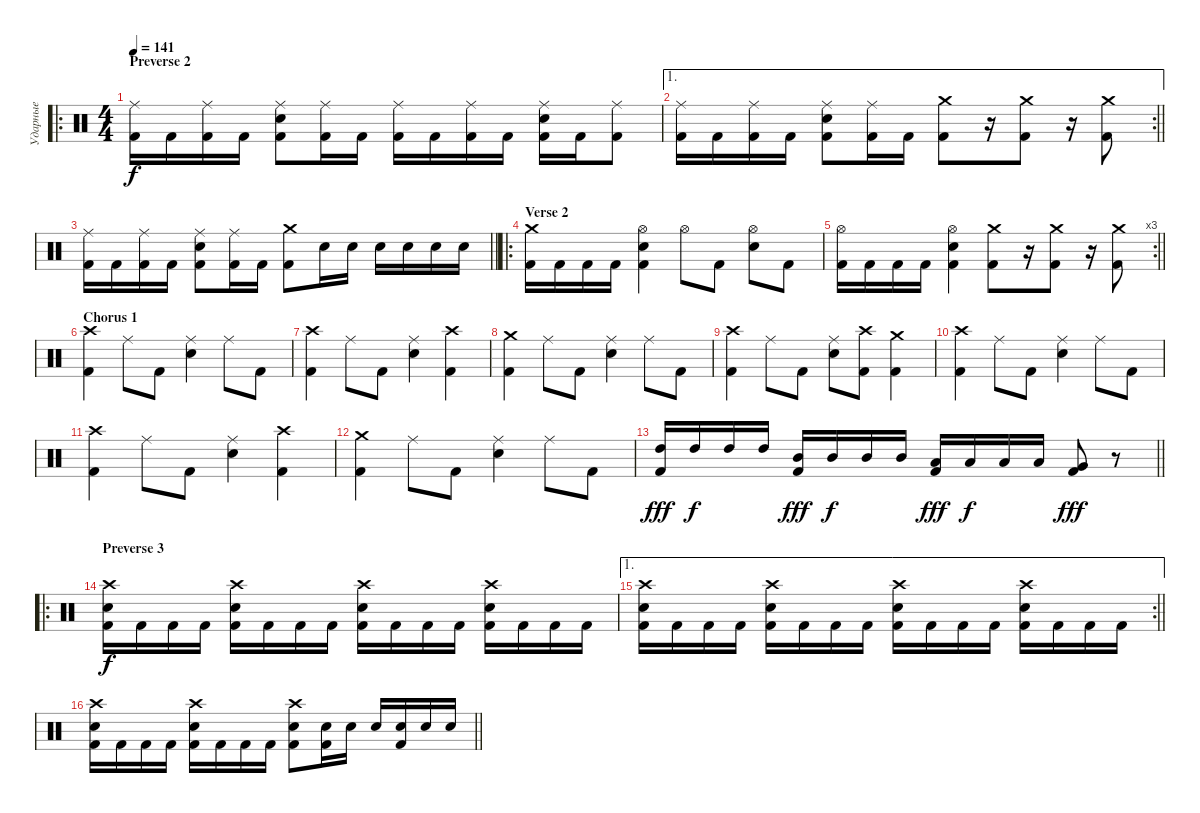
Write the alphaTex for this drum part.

\track ("Ударные" "Ударные") {instrument percussion}
\staff {score}
\articulation defaults
\ro
\ts (4 4)
\section ("" "Preverse 2")
\tempo 141
\clef neutral
\ks c
("Ride (middle)" "Kick (hit) 2").16{dy f} "Kick (hit) 2".16 ("Ride (middle)" "Kick (hit) 2").16 "Kick (hit) 2".16 ("Ride (middle)" "Electric Snare (hit)" "Kick (hit) 2").8 ("Ride (middle)" "Kick (hit) 2").16 "Kick (hit) 2".16 ("Ride (middle)" "Kick (hit) 2").16 "Kick (hit) 2".16 ("Ride (middle)" "Kick (hit) 2").16 "Kick (hit) 2".16 ("Ride (middle)" "Electric Snare (hit)" "Kick (hit) 2").16 "Kick (hit) 2".16 ("Ride (middle)" "Kick (hit) 2").8 |
\ae 1
\rc 2
\barLineRight lightlight
("Ride (middle)" "Kick (hit) 2").16 "Kick (hit) 2".16 ("Ride (middle)" "Kick (hit) 2").16 "Kick (hit) 2".16 ("Ride (middle)" "Electric Snare (hit)" "Kick (hit) 2").8 ("Ride (middle)" "Kick (hit) 2").16 "Kick (hit) 2".16 ("Crash medium (hit)" "Kick (hit) 2").8 r.16 ("Crash medium (hit)" "Kick (hit) 2").8 r.16 ("Crash medium (hit)" "Kick (hit) 2").8 |
\barLineRight lightlight
("Ride (middle)" "Kick (hit) 2").16 "Kick (hit) 2".16 ("Ride (middle)" "Kick (hit) 2").16 "Kick (hit) 2".16 ("Ride (middle)" "Electric Snare (hit)" "Kick (hit) 2").8 ("Ride (middle)" "Kick (hit) 2").16 "Kick (hit) 2".16 ("Crash medium (hit)" "Kick (hit) 2").8 "Electric Snare (hit)".16 "Electric Snare (hit)".16 "Electric Snare (hit)".16 "Electric Snare (hit)".16 "Electric Snare (hit)".16 "Electric Snare (hit)".16 |
\ro
\section ("" "Verse 2")
("Crash medium (hit)" "Kick (hit) 2").16 "Kick (hit) 2".16 "Kick (hit) 2".16 "Kick (hit) 2".16 ("Hi-Hat (open)" "Electric Snare (hit)" "Kick (hit) 2").4 "Hi-Hat (open)".8 "Kick (hit) 2".8 ("Hi-Hat (open)" "Electric Snare (hit)").8 "Kick (hit) 2".8 |
\rc 3
\barLineRight lightlight
("Hi-Hat (open)" "Kick (hit) 2").16 "Kick (hit) 2".16 "Kick (hit) 2".16 "Kick (hit) 2".16 ("Hi-Hat (open)" "Electric Snare (hit)" "Kick (hit) 2").4 ("Crash medium (hit)" "Kick (hit) 2").8 r.16 ("Crash medium (hit)" "Kick (hit) 2").8 r.16 ("Crash medium (hit)" "Kick (hit) 2").8 |
\section ("" "Chorus 1")
("Crash high (hit)" "Kick (hit) 2").4 "Ride (middle)".8 "Kick (hit) 2".8 ("Ride (middle)" "Electric Snare (hit)").4 "Ride (middle)".8 "Kick (hit) 2".8 |
("Crash high (hit)" "Kick (hit) 2").4 "Ride (middle)".8 "Kick (hit) 2".8 ("Ride (middle)" "Electric Snare (hit)").4 ("Crash high (hit)" "Kick (hit) 2").4 |
("Crash medium (hit)" "Kick (hit) 2").4 "Ride (middle)".8 "Kick (hit) 2".8 ("Ride (middle)" "Electric Snare (hit)").4 "Ride (middle)".8 "Kick (hit) 2".8 |
("Crash high (hit)" "Kick (hit) 2").4 "Ride (middle)".8 "Kick (hit) 2".8 ("Ride (middle)" "Electric Snare (hit)").8 ("Crash high (hit)" "Kick (hit) 2").8 ("Crash medium (hit)" "Kick (hit) 2").4 |
("Crash high (hit)" "Kick (hit) 2").4 "Ride (middle)".8 "Kick (hit) 2".8 ("Ride (middle)" "Electric Snare (hit)").4 "Ride (middle)".8 "Kick (hit) 2".8 |
("Crash high (hit)" "Kick (hit) 2").4 "Ride (middle)".8 "Kick (hit) 2".8 ("Ride (middle)" "Electric Snare (hit)").4 ("Crash high (hit)" "Kick (hit) 2").4 |
("Crash medium (hit)" "Kick (hit) 2").4 "Ride (middle)".8 "Kick (hit) 2".8 ("Ride (middle)" "Electric Snare (hit)").4 "Ride (middle)".8 "Kick (hit) 2".8 |
\barLineRight lightlight
("High Tom (hit)" "Kick (hit) 2").16{dy fff} "High Tom (hit)".16{dy f} "High Tom (hit)".16 "High Tom (hit)".16 ("Mid Tom (hit)" "Kick (hit) 2").16{dy fff} "Mid Tom (hit)".16{dy f} "Mid Tom (hit)".16 "Mid Tom (hit)".16 ("Low Tom (hit)" "Kick (hit) 2").16{dy fff} "Low Tom (hit)".16{dy f} "Low Tom (hit)".16 "Low Tom (hit)".16 ("Very Low Tom (hit)" "Kick (hit) 2").8{dy fff} r.8 |
\ro
\section ("" "Preverse 3")
("Crash high (hit)" "Electric Snare (hit)" "Kick (hit) 2").16{dy f} "Kick (hit) 2".16 "Kick (hit) 2".16 "Kick (hit) 2".16 ("Crash high (hit)" "Electric Snare (hit)" "Kick (hit) 2").16 "Kick (hit) 2".16 "Kick (hit) 2".16 "Kick (hit) 2".16 ("Crash high (hit)" "Electric Snare (hit)" "Kick (hit) 2").16 "Kick (hit) 2".16 "Kick (hit) 2".16 "Kick (hit) 2".16 ("Crash high (hit)" "Electric Snare (hit)" "Kick (hit) 2").16 "Kick (hit) 2".16 "Kick (hit) 2".16 "Kick (hit) 2".16 |
\ae 1
\rc 2
\barLineRight lightlight
("Crash high (hit)" "Electric Snare (hit)" "Kick (hit) 2").16 "Kick (hit) 2".16 "Kick (hit) 2".16 "Kick (hit) 2".16 ("Crash high (hit)" "Electric Snare (hit)" "Kick (hit) 2").16 "Kick (hit) 2".16 "Kick (hit) 2".16 "Kick (hit) 2".16 ("Crash high (hit)" "Electric Snare (hit)" "Kick (hit) 2").16 "Kick (hit) 2".16 "Kick (hit) 2".16 "Kick (hit) 2".16 ("Crash high (hit)" "Electric Snare (hit)" "Kick (hit) 2").16 "Kick (hit) 2".16 "Kick (hit) 2".16 "Kick (hit) 2".16 |
\barLineRight lightlight
("Crash high (hit)" "Electric Snare (hit)" "Kick (hit) 2").16 "Kick (hit) 2".16 "Kick (hit) 2".16 "Kick (hit) 2".16 ("Crash high (hit)" "Electric Snare (hit)" "Kick (hit) 2").16 "Kick (hit) 2".16 "Kick (hit) 2".16 "Kick (hit) 2".16 ("Crash high (hit)" "Electric Snare (hit)" "Kick (hit) 2").8 ("Electric Snare (hit)" "Kick (hit) 2").16 "Electric Snare (hit)".16 "Electric Snare (hit)".16 ("Electric Snare (hit)" "Kick (hit) 2").16 "Electric Snare (hit)".16 "Electric Snare (hit)".16
